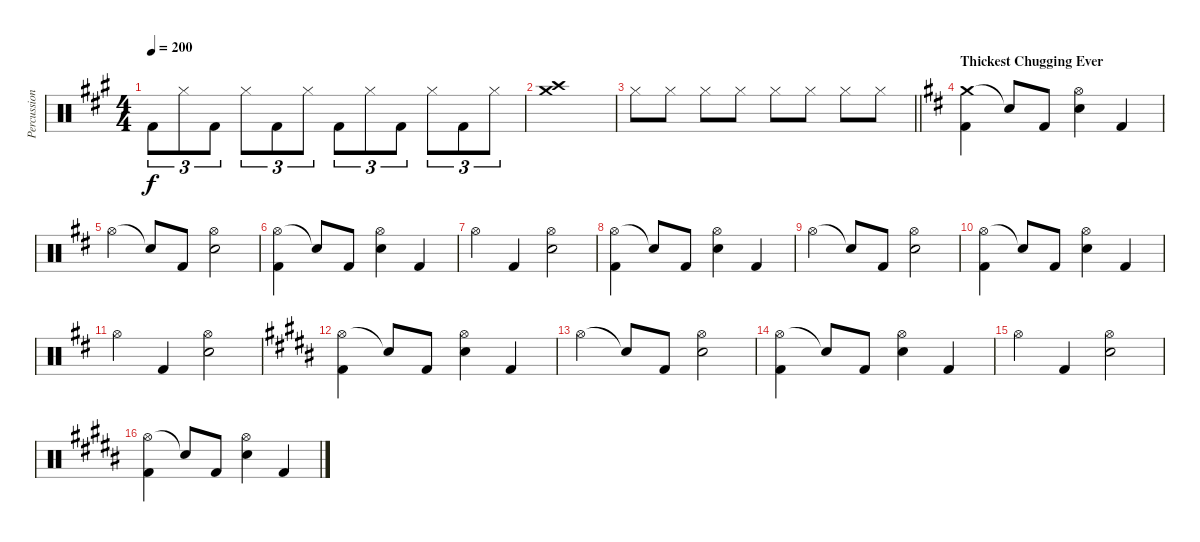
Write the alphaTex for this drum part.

\track ("Percussion" "Percussion") {instrument percussion}
\staff {score}
\articulation defaults
\ts (4 4)
\tempo 200
\clef neutral
\ks f#minor "Kick (hit) 2".8{tu (3 2) dy f} "Hi-Hat (closed)".8{tu (3 2)} "Kick (hit) 2".8{tu (3 2)} "Hi-Hat (closed)".8{tu (3 2)} "Kick (hit) 2".8{tu (3 2)} "Hi-Hat (closed)".8{tu (3 2)} "Kick (hit) 2".8{tu (3 2)} "Hi-Hat (closed)".8{tu (3 2)} "Kick (hit) 2".8{tu (3 2)} "Hi-Hat (closed)".8{tu (3 2)} "Kick (hit) 2".8{tu (3 2)} "Hi-Hat (closed)".8{tu (3 2)}
|
("Crash medium (hit)" "Crash high (hit)").1 |
\barLineRight lightlight "Hi-Hat (closed)".8 "Hi-Hat (closed)".8 "Hi-Hat (closed)".8 "Hi-Hat (closed)".8 "Hi-Hat (closed)".8 "Hi-Hat (closed)".8 "Hi-Hat (closed)".8 "Hi-Hat (closed)".8
|
\section ("" "Thickest Chugging Ever")
\ks bminor
("Crash medium (hit)" "Kick (hit) 2").4 "Snare (hit)"{t}.8 "Kick (hit) 2".8 ("Hi-Hat (open)" "Electric Snare (hit)").4 "Kick (hit) 2".4 |
"Hi-Hat (open)".4 "Snare (hit)"{t}.8 "Kick (hit) 2".8 ("Hi-Hat (open)" "Electric Snare (hit)").2 |
("Hi-Hat (open)" "Kick (hit) 2").4 "Snare (hit)"{t}.8 "Kick (hit) 2".8 ("Hi-Hat (open)" "Electric Snare (hit)").4 "Kick (hit) 2".4 |
"Hi-Hat (open)".4 "Kick (hit) 2".4 ("Hi-Hat (open)" "Electric Snare (hit)").2 |
("Hi-Hat (open)" "Kick (hit) 2").4 "Snare (hit)"{t}.8 "Kick (hit) 2".8 ("Hi-Hat (open)" "Electric Snare (hit)").4 "Kick (hit) 2".4 |
"Hi-Hat (open)".4 "Snare (hit)"{t}.8 "Kick (hit) 2".8 ("Hi-Hat (open)" "Electric Snare (hit)").2 |
("Hi-Hat (open)" "Kick (hit) 2").4 "Snare (hit)"{t}.8 "Kick (hit) 2".8 ("Hi-Hat (open)" "Electric Snare (hit)").4 "Kick (hit) 2".4 |
"Hi-Hat (open)".4 "Kick (hit) 2".4 ("Hi-Hat (open)" "Electric Snare (hit)").2 |
\ks b
("Hi-Hat (open)" "Kick (hit) 2").4 "Snare (hit)"{t}.8 "Kick (hit) 2".8 ("Hi-Hat (open)" "Electric Snare (hit)").4 "Kick (hit) 2".4 |
"Hi-Hat (open)".4 "Snare (hit)"{t}.8 "Kick (hit) 2".8 ("Hi-Hat (open)" "Electric Snare (hit)").2 |
("Hi-Hat (open)" "Kick (hit) 2").4 "Snare (hit)"{t}.8 "Kick (hit) 2".8 ("Hi-Hat (open)" "Electric Snare (hit)").4 "Kick (hit) 2".4 |
"Hi-Hat (open)".4 "Kick (hit) 2".4 ("Hi-Hat (open)" "Electric Snare (hit)").2 |
("Hi-Hat (open)" "Kick (hit) 2").4 "Snare (hit)"{t}.8 "Kick (hit) 2".8 ("Hi-Hat (open)" "Electric Snare (hit)").4 "Kick (hit) 2".4
